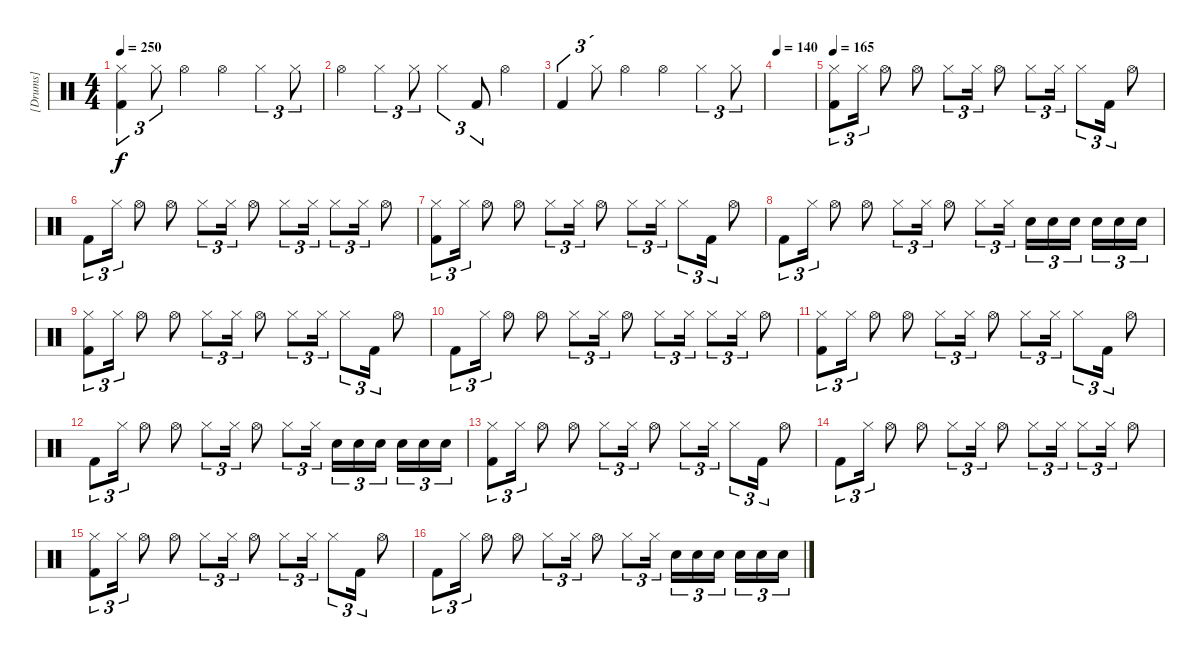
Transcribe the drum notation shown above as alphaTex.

\track ("[Drums]" "[Drums]") {instrument percussion}
\staff {score}
\articulation defaults
\ts (4 4)
\tempo 250
\clef neutral
\ks c
("Hi-Hat (closed)" "Kick (hit) 2").4{tu (3 2) dy f} "Hi-Hat (closed)".8{tu (3 2)} "Hi-Hat (open)".4 "Hi-Hat (open)".4 "Hi-Hat (closed)".4{tu (3 2)} "Hi-Hat (closed)".8{tu (3 2)} |
"Hi-Hat (open)".4 "Hi-Hat (closed)".4{tu (3 2)} "Hi-Hat (closed)".8{tu (3 2)} "Hi-Hat (closed)".4{tu (3 2)} "Kick (hit) 2".8{tu (3 2)} "Hi-Hat (open)".4 |
"Kick (hit) 2".4{tu (3 2)} "Hi-Hat (closed)".8{tu (3 2)} "Hi-Hat (open)".4 "Hi-Hat (open)".4 "Hi-Hat (closed)".4{tu (3 2)} "Hi-Hat (closed)".8{tu (3 2)} |
\tempo 140
|
\tempo 165
("Hi-Hat (closed)" "Kick (hit) 2").8{tu (3 2)} "Hi-Hat (closed)".16{tu (3 2)} "Hi-Hat (open)".8 "Hi-Hat (open)".8 "Hi-Hat (closed)".8{tu (3 2)} "Hi-Hat (closed)".16{tu (3 2)} "Hi-Hat (open)".8 "Hi-Hat (closed)".8{tu (3 2)} "Hi-Hat (closed)".16{tu (3 2)} "Hi-Hat (closed)".8{tu (3 2)} "Kick (hit) 2".16{tu (3 2)} "Hi-Hat (open)".8 |
"Kick (hit) 2".8{tu (3 2)} "Hi-Hat (closed)".16{tu (3 2)} "Hi-Hat (open)".8 "Hi-Hat (open)".8 "Hi-Hat (closed)".8{tu (3 2)} "Hi-Hat (closed)".16{tu (3 2)} "Hi-Hat (open)".8 "Hi-Hat (closed)".8{tu (3 2)} "Hi-Hat (closed)".16{tu (3 2)} "Hi-Hat (closed)".8{tu (3 2)} "Hi-Hat (closed)".16{tu (3 2)} "Hi-Hat (open)".8 |
("Hi-Hat (closed)" "Kick (hit) 2").8{tu (3 2)} "Hi-Hat (closed)".16{tu (3 2)} "Hi-Hat (open)".8 "Hi-Hat (open)".8 "Hi-Hat (closed)".8{tu (3 2)} "Hi-Hat (closed)".16{tu (3 2)} "Hi-Hat (open)".8 "Hi-Hat (closed)".8{tu (3 2)} "Hi-Hat (closed)".16{tu (3 2)} "Hi-Hat (closed)".8{tu (3 2)} "Kick (hit) 2".16{tu (3 2)} "Hi-Hat (open)".8 |
"Kick (hit) 2".8{tu (3 2)} "Hi-Hat (closed)".16{tu (3 2)} "Hi-Hat (open)".8 "Hi-Hat (open)".8 "Hi-Hat (closed)".8{tu (3 2)} "Hi-Hat (closed)".16{tu (3 2)} "Hi-Hat (open)".8 "Hi-Hat (closed)".8{tu (3 2)} "Hi-Hat (closed)".16{tu (3 2)} "Electric Snare (hit)".16{tu (3 2)} "Electric Snare (hit)".16{tu (3 2)} "Electric Snare (hit)".16{tu (3 2) beam splitsecondary} "Electric Snare (hit)".16{tu (3 2)} "Electric Snare (hit)".16{tu (3 2)} "Electric Snare (hit)".16{tu (3 2)} |
("Hi-Hat (closed)" "Kick (hit) 2").8{tu (3 2)} "Hi-Hat (closed)".16{tu (3 2)} "Hi-Hat (open)".8 "Hi-Hat (open)".8 "Hi-Hat (closed)".8{tu (3 2)} "Hi-Hat (closed)".16{tu (3 2)} "Hi-Hat (open)".8 "Hi-Hat (closed)".8{tu (3 2)} "Hi-Hat (closed)".16{tu (3 2)} "Hi-Hat (closed)".8{tu (3 2)} "Kick (hit) 2".16{tu (3 2)} "Hi-Hat (open)".8 |
"Kick (hit) 2".8{tu (3 2)} "Hi-Hat (closed)".16{tu (3 2)} "Hi-Hat (open)".8 "Hi-Hat (open)".8 "Hi-Hat (closed)".8{tu (3 2)} "Hi-Hat (closed)".16{tu (3 2)} "Hi-Hat (open)".8 "Hi-Hat (closed)".8{tu (3 2)} "Hi-Hat (closed)".16{tu (3 2)} "Hi-Hat (closed)".8{tu (3 2)} "Hi-Hat (closed)".16{tu (3 2)} "Hi-Hat (open)".8 |
("Hi-Hat (closed)" "Kick (hit) 2").8{tu (3 2)} "Hi-Hat (closed)".16{tu (3 2)} "Hi-Hat (open)".8 "Hi-Hat (open)".8 "Hi-Hat (closed)".8{tu (3 2)} "Hi-Hat (closed)".16{tu (3 2)} "Hi-Hat (open)".8 "Hi-Hat (closed)".8{tu (3 2)} "Hi-Hat (closed)".16{tu (3 2)} "Hi-Hat (closed)".8{tu (3 2)} "Kick (hit) 2".16{tu (3 2)} "Hi-Hat (open)".8 |
"Kick (hit) 2".8{tu (3 2)} "Hi-Hat (closed)".16{tu (3 2)} "Hi-Hat (open)".8 "Hi-Hat (open)".8 "Hi-Hat (closed)".8{tu (3 2)} "Hi-Hat (closed)".16{tu (3 2)} "Hi-Hat (open)".8 "Hi-Hat (closed)".8{tu (3 2)} "Hi-Hat (closed)".16{tu (3 2)} "Electric Snare (hit)".16{tu (3 2)} "Electric Snare (hit)".16{tu (3 2)} "Electric Snare (hit)".16{tu (3 2) beam splitsecondary} "Electric Snare (hit)".16{tu (3 2)} "Electric Snare (hit)".16{tu (3 2)} "Electric Snare (hit)".16{tu (3 2)} |
("Hi-Hat (closed)" "Kick (hit) 2").8{tu (3 2)} "Hi-Hat (closed)".16{tu (3 2)} "Hi-Hat (open)".8 "Hi-Hat (open)".8 "Hi-Hat (closed)".8{tu (3 2)} "Hi-Hat (closed)".16{tu (3 2)} "Hi-Hat (open)".8 "Hi-Hat (closed)".8{tu (3 2)} "Hi-Hat (closed)".16{tu (3 2)} "Hi-Hat (closed)".8{tu (3 2)} "Kick (hit) 2".16{tu (3 2)} "Hi-Hat (open)".8 |
"Kick (hit) 2".8{tu (3 2)} "Hi-Hat (closed)".16{tu (3 2)} "Hi-Hat (open)".8 "Hi-Hat (open)".8 "Hi-Hat (closed)".8{tu (3 2)} "Hi-Hat (closed)".16{tu (3 2)} "Hi-Hat (open)".8 "Hi-Hat (closed)".8{tu (3 2)} "Hi-Hat (closed)".16{tu (3 2)} "Hi-Hat (closed)".8{tu (3 2)} "Hi-Hat (closed)".16{tu (3 2)} "Hi-Hat (open)".8 |
("Hi-Hat (closed)" "Kick (hit) 2").8{tu (3 2)} "Hi-Hat (closed)".16{tu (3 2)} "Hi-Hat (open)".8 "Hi-Hat (open)".8 "Hi-Hat (closed)".8{tu (3 2)} "Hi-Hat (closed)".16{tu (3 2)} "Hi-Hat (open)".8 "Hi-Hat (closed)".8{tu (3 2)} "Hi-Hat (closed)".16{tu (3 2)} "Hi-Hat (closed)".8{tu (3 2)} "Kick (hit) 2".16{tu (3 2)} "Hi-Hat (open)".8 |
"Kick (hit) 2".8{tu (3 2)} "Hi-Hat (closed)".16{tu (3 2)} "Hi-Hat (open)".8 "Hi-Hat (open)".8 "Hi-Hat (closed)".8{tu (3 2)} "Hi-Hat (closed)".16{tu (3 2)} "Hi-Hat (open)".8 "Hi-Hat (closed)".8{tu (3 2)} "Hi-Hat (closed)".16{tu (3 2)} "Electric Snare (hit)".16{tu (3 2)} "Electric Snare (hit)".16{tu (3 2)} "Electric Snare (hit)".16{tu (3 2) beam splitsecondary} "Electric Snare (hit)".16{tu (3 2)} "Electric Snare (hit)".16{tu (3 2)} "Electric Snare (hit)".16{tu (3 2)}
